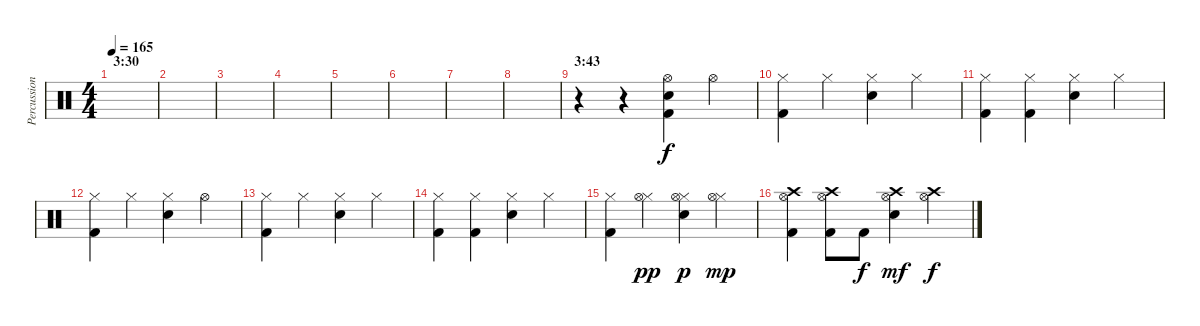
\track ("Percussion" "Percussion") {instrument percussion}
\staff {score}
\articulation defaults
\ts (4 4)
\section ("" "3:30")
\tempo 165
\clef neutral
\ks c
|
|
|
|
|
|
|
|
\section ("" "3:43")
r.4 r.4 ("Hi-Hat (open)" "Electric Snare (hit)" "Kick (hit) 2").4 "Hi-Hat (open)".4 |
("Hi-Hat (closed)" "Kick (hit) 2").4 "Hi-Hat (closed)".4 ("Hi-Hat (closed)" "Electric Snare (hit)").4 "Hi-Hat (closed)".4 |
("Hi-Hat (closed)" "Kick (hit) 2").4 ("Hi-Hat (closed)" "Kick (hit) 2").4 ("Hi-Hat (closed)" "Electric Snare (hit)").4 "Hi-Hat (closed)".4 |
("Hi-Hat (closed)" "Kick (hit) 2").4 "Hi-Hat (closed)".4 ("Hi-Hat (closed)" "Electric Snare (hit)").4 "Hi-Hat (open)".4 |
("Hi-Hat (closed)" "Kick (hit) 2").4 "Hi-Hat (closed)".4 ("Hi-Hat (closed)" "Electric Snare (hit)").4 "Hi-Hat (closed)".4 |
("Hi-Hat (closed)" "Kick (hit) 2").4 ("Hi-Hat (closed)" "Kick (hit) 2").4 ("Hi-Hat (closed)" "Electric Snare (hit)").4 "Hi-Hat (closed)".4 |
("Hi-Hat (closed)" "Kick (hit) 2").4 ("Hi-Hat (closed)" "Hi-Hat (open)").4{dy pp} ("Hi-Hat (closed)" "Hi-Hat (open)" "Electric Snare (hit)").4{dy p} ("Hi-Hat (closed)" "Hi-Hat (open)").4{dy mp} |
("Hi-Hat (open)" "Crash high (hit)" "Kick (hit) 2").4 ("Hi-Hat (open)" "Crash high (hit)" "Kick (hit) 2").8 "Kick (hit) 2".8{dy f} ("Hi-Hat (open)" "Crash high (hit)" "Electric Snare (hit)").4{dy mf} ("Hi-Hat (open)" "Crash high (hit)").4{dy f}
